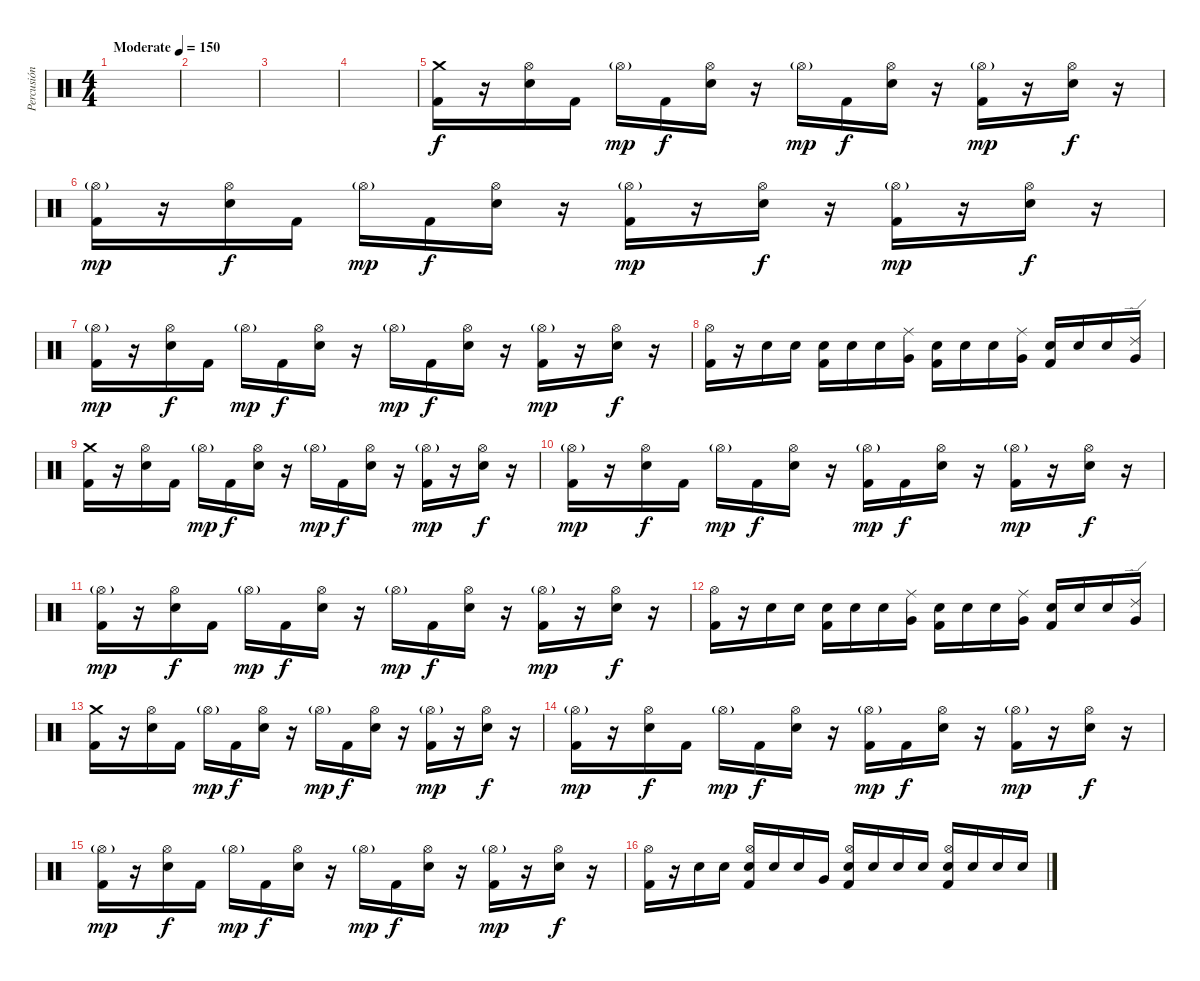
\track ("Percusión" "Percusión") {instrument percussion}
\staff {score}
\articulation defaults
\ts (4 4)
\tempo (150 "Moderate")
\clef neutral
\ks c
|
|
|
|
("Crash medium (hit)" "Kick (hit) 2").16 r.16 ("Hi-Hat (open)" "Electric Snare (hit)").16 "Kick (hit) 2".16 "Hi-Hat (open)"{g}.16{dy mp} "Kick (hit) 2".16{dy f} ("Hi-Hat (open)" "Electric Snare (hit)").16 r.16 "Hi-Hat (open)"{g}.16{dy mp} "Kick (hit) 2".16{dy f} ("Hi-Hat (open)" "Electric Snare (hit)").16 r.16 ("Hi-Hat (open)"{g} "Kick (hit) 2").16{dy mp} r.16 ("Hi-Hat (open)" "Electric Snare (hit)").16{dy f} r.16 |
("Hi-Hat (open)"{g} "Kick (hit) 2").16{dy mp} r.16 ("Hi-Hat (open)" "Electric Snare (hit)").16{dy f} "Kick (hit) 2".16 "Hi-Hat (open)"{g}.16{dy mp} "Kick (hit) 2".16{dy f} ("Hi-Hat (open)" "Electric Snare (hit)").16 r.16 ("Hi-Hat (open)"{g} "Kick (hit) 2").16{dy mp} r.16 ("Hi-Hat (open)" "Electric Snare (hit)").16{dy f} r.16 ("Hi-Hat (open)"{g} "Kick (hit) 2").16{dy mp} r.16 ("Hi-Hat (open)" "Electric Snare (hit)").16{dy f} r.16 |
("Hi-Hat (open)"{g} "Kick (hit) 2").16{dy mp} r.16 ("Hi-Hat (open)" "Electric Snare (hit)").16{dy f} "Kick (hit) 2".16 "Hi-Hat (open)"{g}.16{dy mp} "Kick (hit) 2".16{dy f} ("Hi-Hat (open)" "Electric Snare (hit)").16 r.16 "Hi-Hat (open)"{g}.16{dy mp} "Kick (hit) 2".16{dy f} ("Hi-Hat (open)" "Electric Snare (hit)").16 r.16 ("Hi-Hat (open)"{g} "Kick (hit) 2").16{dy mp} r.16 ("Hi-Hat (open)" "Electric Snare (hit)").16{dy f} r.16 |
("Hi-Hat (open)" "Kick (hit) 2").16 r.16 "Electric Snare (hit)".16 "Electric Snare (hit)".16 ("Electric Snare (hit)" "Kick (hit) 2").16 "Electric Snare (hit)".16 "Electric Snare (hit)".16 ("Ride (middle)" "Very Low Tom (hit)").16 ("Electric Snare (hit)" "Kick (hit) 2").16 "Electric Snare (hit)".16 "Electric Snare (hit)".16 ("Ride (middle)" "Very Low Tom (hit)").16 ("Electric Snare (hit)" "Kick (hit) 2").16 "Electric Snare (hit)".16 "Electric Snare (hit)".16 ("Ride (edge) 2" "Very Low Tom (hit)").16 |
("Crash medium (hit)" "Kick (hit) 2").16 r.16 ("Hi-Hat (open)" "Electric Snare (hit)").16 "Kick (hit) 2".16 "Hi-Hat (open)"{g}.16{dy mp} "Kick (hit) 2".16{dy f} ("Hi-Hat (open)" "Electric Snare (hit)").16 r.16 "Hi-Hat (open)"{g}.16{dy mp} "Kick (hit) 2".16{dy f} ("Hi-Hat (open)" "Electric Snare (hit)").16 r.16 ("Hi-Hat (open)"{g} "Kick (hit) 2").16{dy mp} r.16 ("Hi-Hat (open)" "Electric Snare (hit)").16{dy f} r.16 |
("Hi-Hat (open)"{g} "Kick (hit) 2").16{dy mp} r.16 ("Hi-Hat (open)" "Electric Snare (hit)").16{dy f} "Kick (hit) 2".16 "Hi-Hat (open)"{g}.16{dy mp} "Kick (hit) 2".16{dy f} ("Hi-Hat (open)" "Electric Snare (hit)").16 r.16 ("Hi-Hat (open)"{g} "Kick (hit) 2").16{dy mp} "Kick (hit) 2".16{dy f} ("Hi-Hat (open)" "Electric Snare (hit)").16 r.16 ("Hi-Hat (open)"{g} "Kick (hit) 2").16{dy mp} r.16 ("Hi-Hat (open)" "Electric Snare (hit)").16{dy f} r.16 |
("Hi-Hat (open)"{g} "Kick (hit) 2").16{dy mp} r.16 ("Hi-Hat (open)" "Electric Snare (hit)").16{dy f} "Kick (hit) 2".16 "Hi-Hat (open)"{g}.16{dy mp} "Kick (hit) 2".16{dy f} ("Hi-Hat (open)" "Electric Snare (hit)").16 r.16 "Hi-Hat (open)"{g}.16{dy mp} "Kick (hit) 2".16{dy f} ("Hi-Hat (open)" "Electric Snare (hit)").16 r.16 ("Hi-Hat (open)"{g} "Kick (hit) 2").16{dy mp} r.16 ("Hi-Hat (open)" "Electric Snare (hit)").16{dy f} r.16 |
("Hi-Hat (open)" "Kick (hit) 2").16 r.16 "Electric Snare (hit)".16 "Electric Snare (hit)".16 ("Electric Snare (hit)" "Kick (hit) 2").16 "Electric Snare (hit)".16 "Electric Snare (hit)".16 ("Ride (middle)" "Very Low Tom (hit)").16 ("Electric Snare (hit)" "Kick (hit) 2").16 "Electric Snare (hit)".16 "Electric Snare (hit)".16 ("Ride (middle)" "Very Low Tom (hit)").16 ("Electric Snare (hit)" "Kick (hit) 2").16 "Electric Snare (hit)".16 "Electric Snare (hit)".16 ("Ride (edge) 2" "Very Low Tom (hit)").16 |
("Crash medium (hit)" "Kick (hit) 2").16 r.16 ("Hi-Hat (open)" "Electric Snare (hit)").16 "Kick (hit) 2".16 "Hi-Hat (open)"{g}.16{dy mp} "Kick (hit) 2".16{dy f} ("Hi-Hat (open)" "Electric Snare (hit)").16 r.16 "Hi-Hat (open)"{g}.16{dy mp} "Kick (hit) 2".16{dy f} ("Hi-Hat (open)" "Electric Snare (hit)").16 r.16 ("Hi-Hat (open)"{g} "Kick (hit) 2").16{dy mp} r.16 ("Hi-Hat (open)" "Electric Snare (hit)").16{dy f} r.16 |
("Hi-Hat (open)"{g} "Kick (hit) 2").16{dy mp} r.16 ("Hi-Hat (open)" "Electric Snare (hit)").16{dy f} "Kick (hit) 2".16 "Hi-Hat (open)"{g}.16{dy mp} "Kick (hit) 2".16{dy f} ("Hi-Hat (open)" "Electric Snare (hit)").16 r.16 ("Hi-Hat (open)"{g} "Kick (hit) 2").16{dy mp} "Kick (hit) 2".16{dy f} ("Hi-Hat (open)" "Electric Snare (hit)").16 r.16 ("Hi-Hat (open)"{g} "Kick (hit) 2").16{dy mp} r.16 ("Hi-Hat (open)" "Electric Snare (hit)").16{dy f} r.16 |
("Hi-Hat (open)"{g} "Kick (hit) 2").16{dy mp} r.16 ("Hi-Hat (open)" "Electric Snare (hit)").16{dy f} "Kick (hit) 2".16 "Hi-Hat (open)"{g}.16{dy mp} "Kick (hit) 2".16{dy f} ("Hi-Hat (open)" "Electric Snare (hit)").16 r.16 "Hi-Hat (open)"{g}.16{dy mp} "Kick (hit) 2".16{dy f} ("Hi-Hat (open)" "Electric Snare (hit)").16 r.16 ("Hi-Hat (open)"{g} "Kick (hit) 2").16{dy mp} r.16 ("Hi-Hat (open)" "Electric Snare (hit)").16{dy f} r.16 |
("Hi-Hat (open)" "Kick (hit) 2").16 r.16 "Electric Snare (hit)".16 "Electric Snare (hit)".16 ("Hi-Hat (open)" "Electric Snare (hit)" "Kick (hit) 2").16 "Electric Snare (hit)".16 "Electric Snare (hit)".16 "Very Low Tom (hit)".16 ("Hi-Hat (open)" "Electric Snare (hit)" "Kick (hit) 2").16 "Electric Snare (hit)".16 "Electric Snare (hit)".16 "Electric Snare (hit)".16 ("Hi-Hat (open)" "Electric Snare (hit)" "Kick (hit) 2").16 "Electric Snare (hit)".16 "Electric Snare (hit)".16 "Electric Snare (hit)".16
